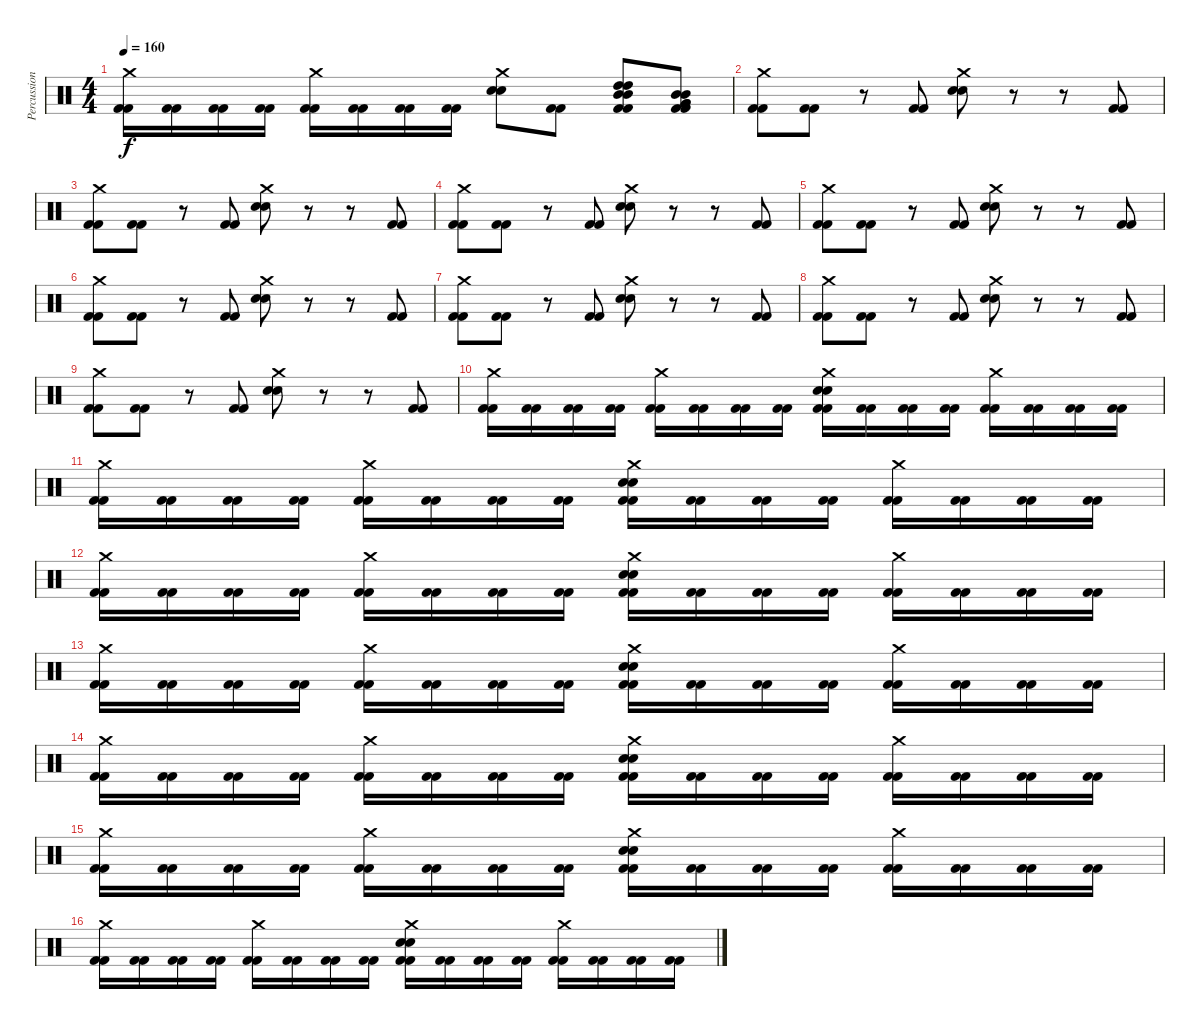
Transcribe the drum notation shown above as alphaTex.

\track ("Percussion" "Percussion") {instrument percussion}
\staff {score}
\articulation defaults
\ts (4 4)
\tempo 160
\clef neutral
\ks c
("Crash medium (hit)" "Kick (hit) 2" "Kick (hit) 2").16{dy f} ("Kick (hit) 2" "Kick (hit) 2").16 ("Kick (hit) 2" "Kick (hit) 2").16 ("Kick (hit) 2" "Kick (hit) 2").16 ("Crash medium (hit)" "Kick (hit) 2" "Kick (hit) 2").16 ("Kick (hit) 2" "Kick (hit) 2").16 ("Kick (hit) 2" "Kick (hit) 2").16 ("Kick (hit) 2" "Kick (hit) 2").16 ("Crash medium (hit)" "Snare (hit) 2" "Snare (hit) 2").8 ("Kick (hit) 2" "Kick (hit) 2").8 ("Kick (hit) 2" "Mid Tom (hit)" "Mid Tom (hit)" "High Tom (hit)" "High Tom (hit)" "Kick (hit) 2").8 ("Kick (hit) 2" "Very Low Tom (hit)" "Very Low Tom (hit)" "Mid Tom (hit)" "Mid Tom (hit)" "Kick (hit) 2").8 |
("Crash medium (hit)" "Kick (hit) 2" "Kick (hit) 2").8 ("Kick (hit) 2" "Kick (hit) 2").8 r.8 ("Kick (hit) 2" "Kick (hit) 2").8 ("Crash medium (hit)" "Snare (hit) 2" "Snare (hit) 2").8 r.8 r.8 ("Kick (hit) 2" "Kick (hit) 2").8 |
("Crash medium (hit)" "Kick (hit) 2" "Kick (hit) 2").8 ("Kick (hit) 2" "Kick (hit) 2").8 r.8 ("Kick (hit) 2" "Kick (hit) 2").8 ("Crash medium (hit)" "Snare (hit) 2" "Snare (hit) 2").8 r.8 r.8 ("Kick (hit) 2" "Kick (hit) 2").8 |
("Crash medium (hit)" "Kick (hit) 2" "Kick (hit) 2").8 ("Kick (hit) 2" "Kick (hit) 2").8 r.8 ("Kick (hit) 2" "Kick (hit) 2").8 ("Crash medium (hit)" "Snare (hit) 2" "Snare (hit) 2").8 r.8 r.8 ("Kick (hit) 2" "Kick (hit) 2").8 |
("Crash medium (hit)" "Kick (hit) 2" "Kick (hit) 2").8 ("Kick (hit) 2" "Kick (hit) 2").8 r.8 ("Kick (hit) 2" "Kick (hit) 2").8 ("Crash medium (hit)" "Snare (hit) 2" "Snare (hit) 2").8 r.8 r.8 ("Kick (hit) 2" "Kick (hit) 2").8 |
("Crash medium (hit)" "Kick (hit) 2" "Kick (hit) 2").8 ("Kick (hit) 2" "Kick (hit) 2").8 r.8 ("Kick (hit) 2" "Kick (hit) 2").8 ("Crash medium (hit)" "Snare (hit) 2" "Snare (hit) 2").8 r.8 r.8 ("Kick (hit) 2" "Kick (hit) 2").8 |
("Crash medium (hit)" "Kick (hit) 2" "Kick (hit) 2").8 ("Kick (hit) 2" "Kick (hit) 2").8 r.8 ("Kick (hit) 2" "Kick (hit) 2").8 ("Crash medium (hit)" "Snare (hit) 2" "Snare (hit) 2").8 r.8 r.8 ("Kick (hit) 2" "Kick (hit) 2").8 |
("Crash medium (hit)" "Kick (hit) 2" "Kick (hit) 2").8 ("Kick (hit) 2" "Kick (hit) 2").8 r.8 ("Kick (hit) 2" "Kick (hit) 2").8 ("Crash medium (hit)" "Snare (hit) 2" "Snare (hit) 2").8 r.8 r.8 ("Kick (hit) 2" "Kick (hit) 2").8 |
("Crash medium (hit)" "Kick (hit) 2" "Kick (hit) 2").8 ("Kick (hit) 2" "Kick (hit) 2").8 r.8 ("Kick (hit) 2" "Kick (hit) 2").8 ("Crash medium (hit)" "Snare (hit) 2" "Snare (hit) 2").8 r.8 r.8 ("Kick (hit) 2" "Kick (hit) 2").8 |
("Crash medium (hit)" "Kick (hit) 2" "Kick (hit) 2").16 ("Kick (hit) 2" "Kick (hit) 2").16 ("Kick (hit) 2" "Kick (hit) 2").16 ("Kick (hit) 2" "Kick (hit) 2").16 ("Crash medium (hit)" "Kick (hit) 2" "Kick (hit) 2").16 ("Kick (hit) 2" "Kick (hit) 2").16 ("Kick (hit) 2" "Kick (hit) 2").16 ("Kick (hit) 2" "Kick (hit) 2").16 ("Crash medium (hit)" "Snare (hit) 2" "Snare (hit) 2" "Kick (hit) 2" "Kick (hit) 2").16 ("Kick (hit) 2" "Kick (hit) 2").16 ("Kick (hit) 2" "Kick (hit) 2").16 ("Kick (hit) 2" "Kick (hit) 2").16 ("Crash medium (hit)" "Kick (hit) 2" "Kick (hit) 2").16 ("Kick (hit) 2" "Kick (hit) 2").16 ("Kick (hit) 2" "Kick (hit) 2").16 ("Kick (hit) 2" "Kick (hit) 2").16 |
("Crash medium (hit)" "Kick (hit) 2" "Kick (hit) 2").16 ("Kick (hit) 2" "Kick (hit) 2").16 ("Kick (hit) 2" "Kick (hit) 2").16 ("Kick (hit) 2" "Kick (hit) 2").16 ("Crash medium (hit)" "Kick (hit) 2" "Kick (hit) 2").16 ("Kick (hit) 2" "Kick (hit) 2").16 ("Kick (hit) 2" "Kick (hit) 2").16 ("Kick (hit) 2" "Kick (hit) 2").16 ("Crash medium (hit)" "Snare (hit) 2" "Snare (hit) 2" "Kick (hit) 2" "Kick (hit) 2").16 ("Kick (hit) 2" "Kick (hit) 2").16 ("Kick (hit) 2" "Kick (hit) 2").16 ("Kick (hit) 2" "Kick (hit) 2").16 ("Crash medium (hit)" "Kick (hit) 2" "Kick (hit) 2").16 ("Kick (hit) 2" "Kick (hit) 2").16 ("Kick (hit) 2" "Kick (hit) 2").16 ("Kick (hit) 2" "Kick (hit) 2").16 |
("Crash medium (hit)" "Kick (hit) 2" "Kick (hit) 2").16 ("Kick (hit) 2" "Kick (hit) 2").16 ("Kick (hit) 2" "Kick (hit) 2").16 ("Kick (hit) 2" "Kick (hit) 2").16 ("Crash medium (hit)" "Kick (hit) 2" "Kick (hit) 2").16 ("Kick (hit) 2" "Kick (hit) 2").16 ("Kick (hit) 2" "Kick (hit) 2").16 ("Kick (hit) 2" "Kick (hit) 2").16 ("Crash medium (hit)" "Snare (hit) 2" "Snare (hit) 2" "Kick (hit) 2" "Kick (hit) 2").16 ("Kick (hit) 2" "Kick (hit) 2").16 ("Kick (hit) 2" "Kick (hit) 2").16 ("Kick (hit) 2" "Kick (hit) 2").16 ("Crash medium (hit)" "Kick (hit) 2" "Kick (hit) 2").16 ("Kick (hit) 2" "Kick (hit) 2").16 ("Kick (hit) 2" "Kick (hit) 2").16 ("Kick (hit) 2" "Kick (hit) 2").16 |
("Crash medium (hit)" "Kick (hit) 2" "Kick (hit) 2").16 ("Kick (hit) 2" "Kick (hit) 2").16 ("Kick (hit) 2" "Kick (hit) 2").16 ("Kick (hit) 2" "Kick (hit) 2").16 ("Crash medium (hit)" "Kick (hit) 2" "Kick (hit) 2").16 ("Kick (hit) 2" "Kick (hit) 2").16 ("Kick (hit) 2" "Kick (hit) 2").16 ("Kick (hit) 2" "Kick (hit) 2").16 ("Crash medium (hit)" "Snare (hit) 2" "Snare (hit) 2" "Kick (hit) 2" "Kick (hit) 2").16 ("Kick (hit) 2" "Kick (hit) 2").16 ("Kick (hit) 2" "Kick (hit) 2").16 ("Kick (hit) 2" "Kick (hit) 2").16 ("Crash medium (hit)" "Kick (hit) 2" "Kick (hit) 2").16 ("Kick (hit) 2" "Kick (hit) 2").16 ("Kick (hit) 2" "Kick (hit) 2").16 ("Kick (hit) 2" "Kick (hit) 2").16 |
("Crash medium (hit)" "Kick (hit) 2" "Kick (hit) 2").16 ("Kick (hit) 2" "Kick (hit) 2").16 ("Kick (hit) 2" "Kick (hit) 2").16 ("Kick (hit) 2" "Kick (hit) 2").16 ("Crash medium (hit)" "Kick (hit) 2" "Kick (hit) 2").16 ("Kick (hit) 2" "Kick (hit) 2").16 ("Kick (hit) 2" "Kick (hit) 2").16 ("Kick (hit) 2" "Kick (hit) 2").16 ("Crash medium (hit)" "Snare (hit) 2" "Snare (hit) 2" "Kick (hit) 2" "Kick (hit) 2").16 ("Kick (hit) 2" "Kick (hit) 2").16 ("Kick (hit) 2" "Kick (hit) 2").16 ("Kick (hit) 2" "Kick (hit) 2").16 ("Crash medium (hit)" "Kick (hit) 2" "Kick (hit) 2").16 ("Kick (hit) 2" "Kick (hit) 2").16 ("Kick (hit) 2" "Kick (hit) 2").16 ("Kick (hit) 2" "Kick (hit) 2").16 |
("Crash medium (hit)" "Kick (hit) 2" "Kick (hit) 2").16 ("Kick (hit) 2" "Kick (hit) 2").16 ("Kick (hit) 2" "Kick (hit) 2").16 ("Kick (hit) 2" "Kick (hit) 2").16 ("Crash medium (hit)" "Kick (hit) 2" "Kick (hit) 2").16 ("Kick (hit) 2" "Kick (hit) 2").16 ("Kick (hit) 2" "Kick (hit) 2").16 ("Kick (hit) 2" "Kick (hit) 2").16 ("Crash medium (hit)" "Snare (hit) 2" "Snare (hit) 2" "Kick (hit) 2" "Kick (hit) 2").16 ("Kick (hit) 2" "Kick (hit) 2").16 ("Kick (hit) 2" "Kick (hit) 2").16 ("Kick (hit) 2" "Kick (hit) 2").16 ("Crash medium (hit)" "Kick (hit) 2" "Kick (hit) 2").16 ("Kick (hit) 2" "Kick (hit) 2").16 ("Kick (hit) 2" "Kick (hit) 2").16 ("Kick (hit) 2" "Kick (hit) 2").16 |
("Crash medium (hit)" "Kick (hit) 2" "Kick (hit) 2").16 ("Kick (hit) 2" "Kick (hit) 2").16 ("Kick (hit) 2" "Kick (hit) 2").16 ("Kick (hit) 2" "Kick (hit) 2").16 ("Crash medium (hit)" "Kick (hit) 2" "Kick (hit) 2").16 ("Kick (hit) 2" "Kick (hit) 2").16 ("Kick (hit) 2" "Kick (hit) 2").16 ("Kick (hit) 2" "Kick (hit) 2").16 ("Crash medium (hit)" "Snare (hit) 2" "Snare (hit) 2" "Kick (hit) 2" "Kick (hit) 2").16 ("Kick (hit) 2" "Kick (hit) 2").16 ("Kick (hit) 2" "Kick (hit) 2").16 ("Kick (hit) 2" "Kick (hit) 2").16 ("Crash medium (hit)" "Kick (hit) 2" "Kick (hit) 2").16 ("Kick (hit) 2" "Kick (hit) 2").16 ("Kick (hit) 2" "Kick (hit) 2").16 ("Kick (hit) 2" "Kick (hit) 2").16
